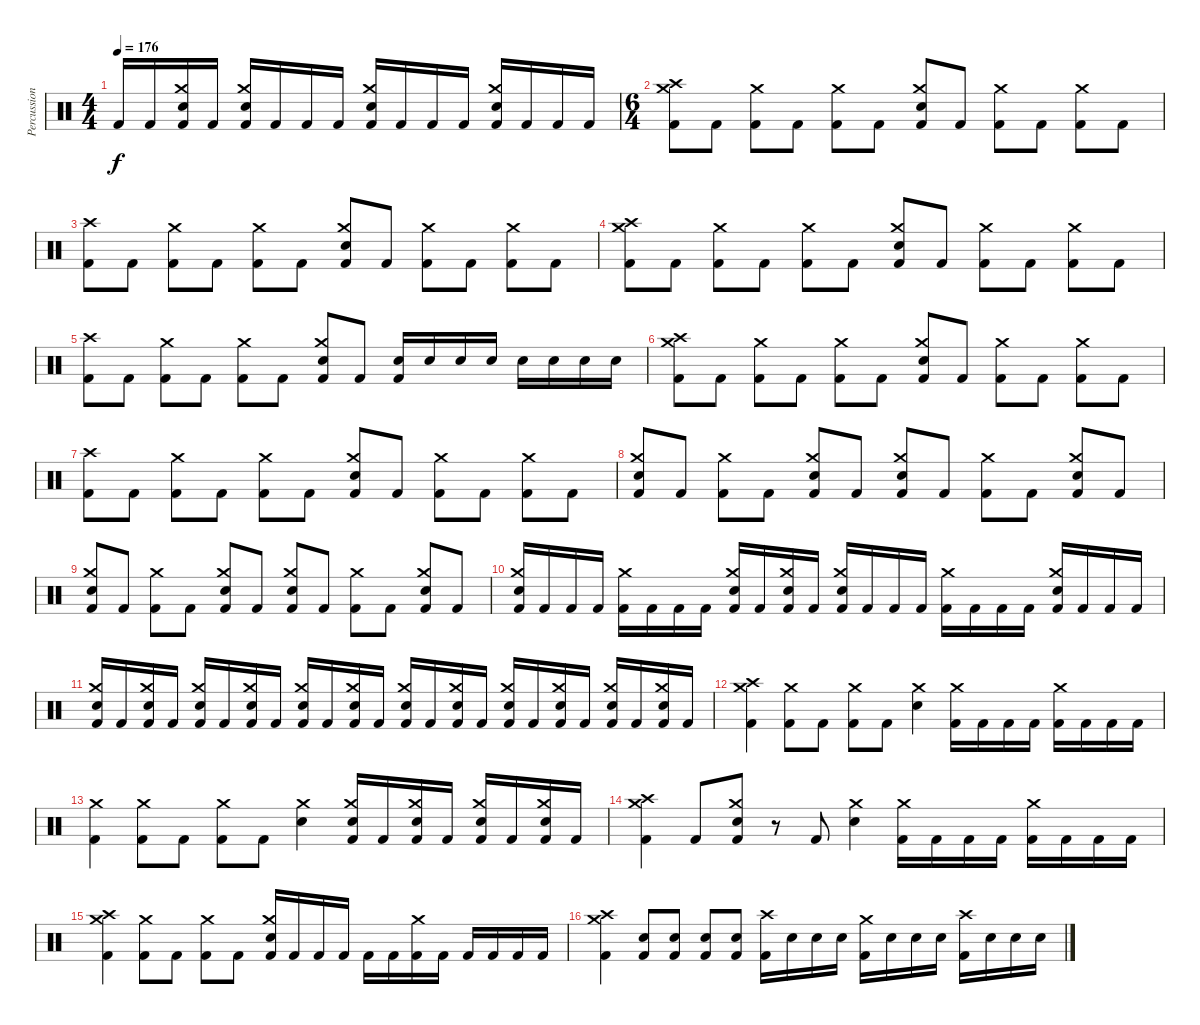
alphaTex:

\track ("Percussion" "Percussion") {instrument percussion}
\staff {score}
\articulation defaults
\ts (4 4)
\tempo 176
\clef neutral
\ks c "Kick (hit) 2".16{dy f} "Kick (hit) 2".16
("Crash medium (hit)" "Snare (hit) 2" "Kick (hit) 2").16 "Kick (hit) 2".16 ("Crash medium (hit)" "Snare (hit) 2" "Kick (hit) 2").16 "Kick (hit) 2".16 "Kick (hit) 2".16 "Kick (hit) 2".16 ("Crash medium (hit)" "Snare (hit) 2" "Kick (hit) 2").16 "Kick (hit) 2".16 "Kick (hit) 2".16 "Kick (hit) 2".16 ("Crash medium (hit)" "Snare (hit) 2" "Kick (hit) 2").16 "Kick (hit) 2".16 "Kick (hit) 2".16 "Kick (hit) 2".16 |
\ts (6 4)
("Crash high (hit)" "Crash medium (hit)" "Kick (hit) 2").8 "Kick (hit) 2".8 ("Crash medium (hit)" "Kick (hit) 2").8 "Kick (hit) 2".8 ("Crash medium (hit)" "Kick (hit) 2").8 "Kick (hit) 2".8 ("Crash medium (hit)" "Snare (hit) 2" "Kick (hit) 2").8 "Kick (hit) 2".8 ("Crash medium (hit)" "Kick (hit) 2").8 "Kick (hit) 2".8 ("Crash medium (hit)" "Kick (hit) 2").8 "Kick (hit) 2".8 |
("Crash high (hit)" "Kick (hit) 2").8 "Kick (hit) 2".8 ("Crash medium (hit)" "Kick (hit) 2").8 "Kick (hit) 2".8 ("Crash medium (hit)" "Kick (hit) 2").8 "Kick (hit) 2".8 ("Crash medium (hit)" "Snare (hit) 2" "Kick (hit) 2").8 "Kick (hit) 2".8 ("Crash medium (hit)" "Kick (hit) 2").8 "Kick (hit) 2".8 ("Crash medium (hit)" "Kick (hit) 2").8 "Kick (hit) 2".8 |
("Crash high (hit)" "Crash medium (hit)" "Kick (hit) 2").8 "Kick (hit) 2".8 ("Crash medium (hit)" "Kick (hit) 2").8 "Kick (hit) 2".8 ("Crash medium (hit)" "Kick (hit) 2").8 "Kick (hit) 2".8 ("Crash medium (hit)" "Snare (hit) 2" "Kick (hit) 2").8 "Kick (hit) 2".8 ("Crash medium (hit)" "Kick (hit) 2").8 "Kick (hit) 2".8 ("Crash medium (hit)" "Kick (hit) 2").8 "Kick (hit) 2".8 |
("Crash high (hit)" "Kick (hit) 2").8 "Kick (hit) 2".8 ("Crash medium (hit)" "Kick (hit) 2").8 "Kick (hit) 2".8 ("Crash medium (hit)" "Kick (hit) 2").8 "Kick (hit) 2".8 ("Crash medium (hit)" "Snare (hit) 2" "Kick (hit) 2").8 "Kick (hit) 2".8 ("Snare (hit) 2" "Kick (hit) 2").16 "Snare (hit) 2".16 "Snare (hit) 2".16 "Snare (hit) 2".16 "Snare (hit) 2".16 "Snare (hit) 2".16 "Snare (hit) 2".16 "Snare (hit) 2".16 |
("Crash high (hit)" "Crash medium (hit)" "Kick (hit) 2").8 "Kick (hit) 2".8 ("Crash medium (hit)" "Kick (hit) 2").8 "Kick (hit) 2".8 ("Crash medium (hit)" "Kick (hit) 2").8 "Kick (hit) 2".8 ("Crash medium (hit)" "Snare (hit) 2" "Kick (hit) 2").8 "Kick (hit) 2".8 ("Crash medium (hit)" "Kick (hit) 2").8 "Kick (hit) 2".8 ("Crash medium (hit)" "Kick (hit) 2").8 "Kick (hit) 2".8 |
("Crash high (hit)" "Kick (hit) 2").8 "Kick (hit) 2".8 ("Crash medium (hit)" "Kick (hit) 2").8 "Kick (hit) 2".8 ("Crash medium (hit)" "Kick (hit) 2").8 "Kick (hit) 2".8 ("Crash medium (hit)" "Snare (hit) 2" "Kick (hit) 2").8 "Kick (hit) 2".8 ("Crash medium (hit)" "Kick (hit) 2").8 "Kick (hit) 2".8 ("Crash medium (hit)" "Kick (hit) 2").8 "Kick (hit) 2".8 |
("Crash medium (hit)" "Snare (hit) 2" "Kick (hit) 2").8 "Kick (hit) 2".8 ("Crash medium (hit)" "Kick (hit) 2").8 "Kick (hit) 2".8 ("Crash medium (hit)" "Snare (hit) 2" "Kick (hit) 2").8 "Kick (hit) 2".8 ("Crash medium (hit)" "Snare (hit) 2" "Kick (hit) 2").8 "Kick (hit) 2".8 ("Crash medium (hit)" "Kick (hit) 2").8 "Kick (hit) 2".8 ("Crash medium (hit)" "Snare (hit) 2" "Kick (hit) 2").8 "Kick (hit) 2".8 |
("Crash medium (hit)" "Snare (hit) 2" "Kick (hit) 2").8 "Kick (hit) 2".8 ("Crash medium (hit)" "Kick (hit) 2").8 "Kick (hit) 2".8 ("Crash medium (hit)" "Snare (hit) 2" "Kick (hit) 2").8 "Kick (hit) 2".8 ("Crash medium (hit)" "Snare (hit) 2" "Kick (hit) 2").8 "Kick (hit) 2".8 ("Crash medium (hit)" "Kick (hit) 2").8 "Kick (hit) 2".8 ("Crash medium (hit)" "Snare (hit) 2" "Kick (hit) 2").8 "Kick (hit) 2".8 |
("Crash medium (hit)" "Snare (hit) 2" "Kick (hit) 2").16 "Kick (hit) 2".16 "Kick (hit) 2".16 "Kick (hit) 2".16 ("Crash medium (hit)" "Kick (hit) 2").16 "Kick (hit) 2".16 "Kick (hit) 2".16 "Kick (hit) 2".16 ("Crash medium (hit)" "Snare (hit) 2" "Kick (hit) 2").16 "Kick (hit) 2".16 ("Crash medium (hit)" "Snare (hit) 2" "Kick (hit) 2").16 "Kick (hit) 2".16 ("Crash medium (hit)" "Snare (hit) 2" "Kick (hit) 2").16 "Kick (hit) 2".16 "Kick (hit) 2".16 "Kick (hit) 2".16 ("Crash medium (hit)" "Kick (hit) 2").16 "Kick (hit) 2".16 "Kick (hit) 2".16 "Kick (hit) 2".16 ("Crash medium (hit)" "Snare (hit) 2" "Kick (hit) 2").16 "Kick (hit) 2".16 "Kick (hit) 2".16 "Kick (hit) 2".16 |
("Crash medium (hit)" "Snare (hit) 2" "Kick (hit) 2").16 "Kick (hit) 2".16 ("Crash medium (hit)" "Snare (hit) 2" "Kick (hit) 2").16 "Kick (hit) 2".16 ("Crash medium (hit)" "Snare (hit) 2" "Kick (hit) 2").16 "Kick (hit) 2".16 ("Crash medium (hit)" "Snare (hit) 2" "Kick (hit) 2").16 "Kick (hit) 2".16 ("Crash medium (hit)" "Snare (hit) 2" "Kick (hit) 2").16 "Kick (hit) 2".16 ("Crash medium (hit)" "Snare (hit) 2" "Kick (hit) 2").16 "Kick (hit) 2".16 ("Crash medium (hit)" "Snare (hit) 2" "Kick (hit) 2").16 "Kick (hit) 2".16 ("Crash medium (hit)" "Snare (hit) 2" "Kick (hit) 2").16 "Kick (hit) 2".16 ("Crash medium (hit)" "Snare (hit) 2" "Kick (hit) 2").16 "Kick (hit) 2".16 ("Crash medium (hit)" "Snare (hit) 2" "Kick (hit) 2").16 "Kick (hit) 2".16 ("Crash medium (hit)" "Snare (hit) 2" "Kick (hit) 2").16 "Kick (hit) 2".16 ("Crash medium (hit)" "Snare (hit) 2" "Kick (hit) 2").16 "Kick (hit) 2".16 |
("Crash high (hit)" "Crash medium (hit)" "Kick (hit) 2").4 ("Crash medium (hit)" "Kick (hit) 2").8 "Kick (hit) 2".8 ("Crash medium (hit)" "Kick (hit) 2").8 "Kick (hit) 2".8 ("Crash medium (hit)" "Snare (hit) 2").4 ("Crash medium (hit)" "Kick (hit) 2").16 "Kick (hit) 2".16 "Kick (hit) 2".16 "Kick (hit) 2".16 ("Crash medium (hit)" "Kick (hit) 2").16 "Kick (hit) 2".16 "Kick (hit) 2".16 "Kick (hit) 2".16 |
("Crash medium (hit)" "Kick (hit) 2").4 ("Crash medium (hit)" "Kick (hit) 2").8 "Kick (hit) 2".8 ("Crash medium (hit)" "Kick (hit) 2").8 "Kick (hit) 2".8 ("Crash medium (hit)" "Snare (hit) 2").4 ("Crash medium (hit)" "Snare (hit) 2" "Kick (hit) 2").16 "Kick (hit) 2".16 ("Crash medium (hit)" "Snare (hit) 2" "Kick (hit) 2").16 "Kick (hit) 2".16 ("Crash medium (hit)" "Snare (hit) 2" "Kick (hit) 2").16 "Kick (hit) 2".16 ("Crash medium (hit)" "Snare (hit) 2" "Kick (hit) 2").16 "Kick (hit) 2".16 |
("Crash high (hit)" "Crash medium (hit)" "Kick (hit) 2").4 "Kick (hit) 2".8 ("Crash medium (hit)" "Snare (hit) 2" "Kick (hit) 2").8 r.8 "Kick (hit) 2".8 ("Crash medium (hit)" "Snare (hit) 2").4 ("Crash medium (hit)" "Kick (hit) 2").16 "Kick (hit) 2".16 "Kick (hit) 2".16 "Kick (hit) 2".16 ("Crash medium (hit)" "Kick (hit) 2").16 "Kick (hit) 2".16 "Kick (hit) 2".16 "Kick (hit) 2".16 |
("Crash high (hit)" "Crash medium (hit)" "Kick (hit) 2").4 ("Crash medium (hit)" "Kick (hit) 2").8 "Kick (hit) 2".8 ("Crash medium (hit)" "Kick (hit) 2").8 "Kick (hit) 2".8 ("Crash medium (hit)" "Snare (hit) 2" "Kick (hit) 2").16 "Kick (hit) 2".16 "Kick (hit) 2".16 "Kick (hit) 2".16 "Kick (hit) 2".16 "Kick (hit) 2".16 ("Crash medium (hit)" "Kick (hit) 2").16 "Kick (hit) 2".16 "Kick (hit) 2".16 "Kick (hit) 2".16 "Kick (hit) 2".16 "Kick (hit) 2".16 |
("Crash high (hit)" "Crash medium (hit)" "Kick (hit) 2").4 ("Snare (hit) 2" "Kick (hit) 2").8 ("Snare (hit) 2" "Kick (hit) 2").8 ("Snare (hit) 2" "Kick (hit) 2").8 ("Snare (hit) 2" "Kick (hit) 2").8 ("Crash high (hit)" "Kick (hit) 2").16 "Snare (hit) 2".16 "Snare (hit) 2".16 "Snare (hit) 2".16 ("Crash medium (hit)" "Kick (hit) 2").16 "Snare (hit) 2".16 "Snare (hit) 2".16 "Snare (hit) 2".16 ("Crash high (hit)" "Kick (hit) 2").16 "Snare (hit) 2".16 "Snare (hit) 2".16 "Snare (hit) 2".16
